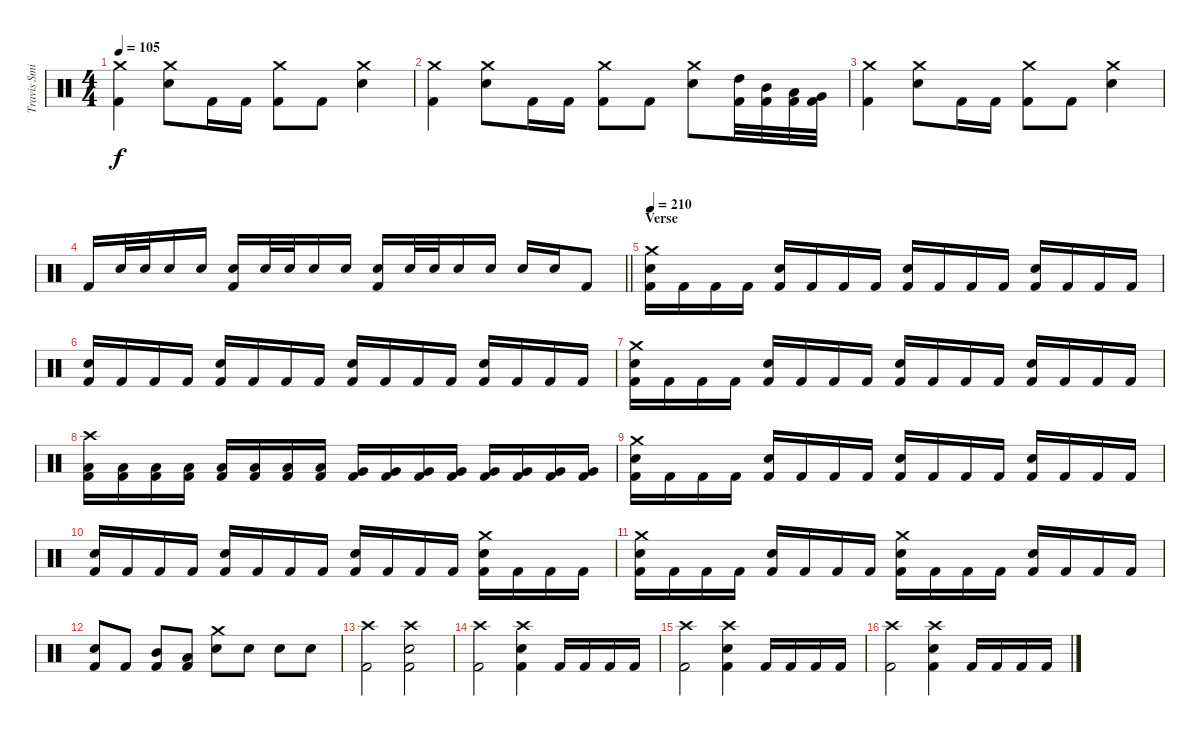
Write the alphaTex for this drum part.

\track ("Travis Smith" "Travis Smi") {instrument percussion}
\staff {score}
\articulation defaults
\ts (4 4)
\tempo 105
\clef neutral
\ks c
("Crash medium (hit)" "Kick (hit) 2").4{dy f} ("Crash medium (hit)" "Snare (hit) 2").8 "Kick (hit) 2".16 "Kick (hit) 2".16 ("Crash medium (hit)" "Kick (hit) 2").8 "Kick (hit) 2".8 ("Crash medium (hit)" "Snare (hit) 2").4 |
("Crash medium (hit)" "Kick (hit) 2").4 ("Crash medium (hit)" "Snare (hit) 2").8 "Kick (hit) 2".16 "Kick (hit) 2".16 ("Crash medium (hit)" "Kick (hit) 2").8 "Kick (hit) 2".8 ("Crash medium (hit)" "Snare (hit) 2").8 ("High Tom (hit)" "Kick (hit) 2").32 ("Mid Tom (hit)" "Kick (hit) 2").32 ("Low Tom (hit)" "Kick (hit) 2").32 ("Very Low Tom (hit)" "Kick (hit) 2").32 |
("Crash medium (hit)" "Kick (hit) 2").4 ("Crash medium (hit)" "Snare (hit) 2").8 "Kick (hit) 2".16 "Kick (hit) 2".16 ("Crash medium (hit)" "Kick (hit) 2").8 "Kick (hit) 2".8 ("Crash medium (hit)" "Snare (hit) 2").4 |
\barLineRight lightlight "Kick (hit) 2".16 "Snare (hit) 2".32 "Snare (hit) 2".32 "Snare (hit) 2".16 "Snare (hit) 2".16
("Snare (hit) 2" "Kick (hit) 2").16 "Snare (hit) 2".32 "Snare (hit) 2".32 "Snare (hit) 2".16 "Snare (hit) 2".16 ("Snare (hit) 2" "Kick (hit) 2").16 "Snare (hit) 2".32 "Snare (hit) 2".32 "Snare (hit) 2".16 "Snare (hit) 2".16 "Snare (hit) 2".16 "Snare (hit) 2".16 "Kick (hit) 2".8 |
\section ("" "Verse")
\tempo 210
("Crash medium (hit)" "Snare (hit) 2" "Kick (hit) 2").16 "Kick (hit) 2".16 "Kick (hit) 2".16 "Kick (hit) 2".16 ("Snare (hit) 2" "Kick (hit) 2").16 "Kick (hit) 2".16 "Kick (hit) 2".16 "Kick (hit) 2".16 ("Snare (hit) 2" "Kick (hit) 2").16 "Kick (hit) 2".16 "Kick (hit) 2".16 "Kick (hit) 2".16 ("Snare (hit) 2" "Kick (hit) 2").16 "Kick (hit) 2".16 "Kick (hit) 2".16 "Kick (hit) 2".16 |
("Snare (hit) 2" "Kick (hit) 2").16 "Kick (hit) 2".16 "Kick (hit) 2".16 "Kick (hit) 2".16 ("Snare (hit) 2" "Kick (hit) 2").16 "Kick (hit) 2".16 "Kick (hit) 2".16 "Kick (hit) 2".16 ("Snare (hit) 2" "Kick (hit) 2").16 "Kick (hit) 2".16 "Kick (hit) 2".16 "Kick (hit) 2".16 ("Snare (hit) 2" "Kick (hit) 2").16 "Kick (hit) 2".16 "Kick (hit) 2".16 "Kick (hit) 2".16 |
("Crash medium (hit)" "Snare (hit) 2" "Kick (hit) 2").16 "Kick (hit) 2".16 "Kick (hit) 2".16 "Kick (hit) 2".16 ("Snare (hit) 2" "Kick (hit) 2").16 "Kick (hit) 2".16 "Kick (hit) 2".16 "Kick (hit) 2".16 ("Snare (hit) 2" "Kick (hit) 2").16 "Kick (hit) 2".16 "Kick (hit) 2".16 "Kick (hit) 2".16 ("Snare (hit) 2" "Kick (hit) 2").16 "Kick (hit) 2".16 "Kick (hit) 2".16 "Kick (hit) 2".16 |
("Crash high (hit)" "Low Tom (hit)" "Kick (hit) 2").16 ("Low Tom (hit)" "Kick (hit) 2").16 ("Low Tom (hit)" "Kick (hit) 2").16 ("Low Tom (hit)" "Kick (hit) 2").16 ("Low Tom (hit)" "Kick (hit) 2").16 ("Low Tom (hit)" "Kick (hit) 2").16 ("Low Tom (hit)" "Kick (hit) 2").16 ("Low Tom (hit)" "Kick (hit) 2").16 ("Very Low Tom (hit)" "Kick (hit) 2").16 ("Very Low Tom (hit)" "Kick (hit) 2").16 ("Very Low Tom (hit)" "Kick (hit) 2").16 ("Very Low Tom (hit)" "Kick (hit) 2").16 ("Very Low Tom (hit)" "Kick (hit) 2").16 ("Very Low Tom (hit)" "Kick (hit) 2").16 ("Very Low Tom (hit)" "Kick (hit) 2").16 ("Very Low Tom (hit)" "Kick (hit) 2").16 |
("Crash medium (hit)" "Snare (hit) 2" "Kick (hit) 2").16 "Kick (hit) 2".16 "Kick (hit) 2".16 "Kick (hit) 2".16 ("Snare (hit) 2" "Kick (hit) 2").16 "Kick (hit) 2".16 "Kick (hit) 2".16 "Kick (hit) 2".16 ("Snare (hit) 2" "Kick (hit) 2").16 "Kick (hit) 2".16 "Kick (hit) 2".16 "Kick (hit) 2".16 ("Snare (hit) 2" "Kick (hit) 2").16 "Kick (hit) 2".16 "Kick (hit) 2".16 "Kick (hit) 2".16 |
("Snare (hit) 2" "Kick (hit) 2").16 "Kick (hit) 2".16 "Kick (hit) 2".16 "Kick (hit) 2".16 ("Snare (hit) 2" "Kick (hit) 2").16 "Kick (hit) 2".16 "Kick (hit) 2".16 "Kick (hit) 2".16 ("Snare (hit) 2" "Kick (hit) 2").16 "Kick (hit) 2".16 "Kick (hit) 2".16 "Kick (hit) 2".16 ("Crash medium (hit)" "Snare (hit) 2" "Kick (hit) 2").16 "Kick (hit) 2".16 "Kick (hit) 2".16 "Kick (hit) 2".16 |
("Crash medium (hit)" "Snare (hit) 2" "Kick (hit) 2").16 "Kick (hit) 2".16 "Kick (hit) 2".16 "Kick (hit) 2".16 ("Snare (hit) 2" "Kick (hit) 2").16 "Kick (hit) 2".16 "Kick (hit) 2".16 "Kick (hit) 2".16 ("Crash medium (hit)" "Snare (hit) 2" "Kick (hit) 2").16 "Kick (hit) 2".16 "Kick (hit) 2".16 "Kick (hit) 2".16 ("Snare (hit) 2" "Kick (hit) 2").16 "Kick (hit) 2".16 "Kick (hit) 2".16 "Kick (hit) 2".16 |
("Snare (hit) 2" "Kick (hit) 2").8 "Kick (hit) 2".8 ("Mid Tom (hit)" "Kick (hit) 2").8 ("Low Tom (hit)" "Kick (hit) 2").8 ("Crash medium (hit)" "Snare (hit) 2").8 "Snare (hit) 2".8 "Snare (hit) 2".8 "Snare (hit) 2".8 |
("Crash high (hit)" "Kick (hit) 2").2 ("Crash high (hit)" "Snare (hit) 2" "Kick (hit) 2").2 |
("Crash high (hit)" "Kick (hit) 2").2 ("Crash high (hit)" "Snare (hit) 2" "Kick (hit) 2").4 "Kick (hit) 2".16 "Kick (hit) 2".16 "Kick (hit) 2".16 "Kick (hit) 2".16 |
("Crash high (hit)" "Kick (hit) 2").2 ("Crash high (hit)" "Snare (hit) 2" "Kick (hit) 2").4 "Kick (hit) 2".16 "Kick (hit) 2".16 "Kick (hit) 2".16 "Kick (hit) 2".16 |
("Crash high (hit)" "Kick (hit) 2").2 ("Crash high (hit)" "Snare (hit) 2" "Kick (hit) 2").4 "Kick (hit) 2".16 "Kick (hit) 2".16 "Kick (hit) 2".16 "Kick (hit) 2".16
